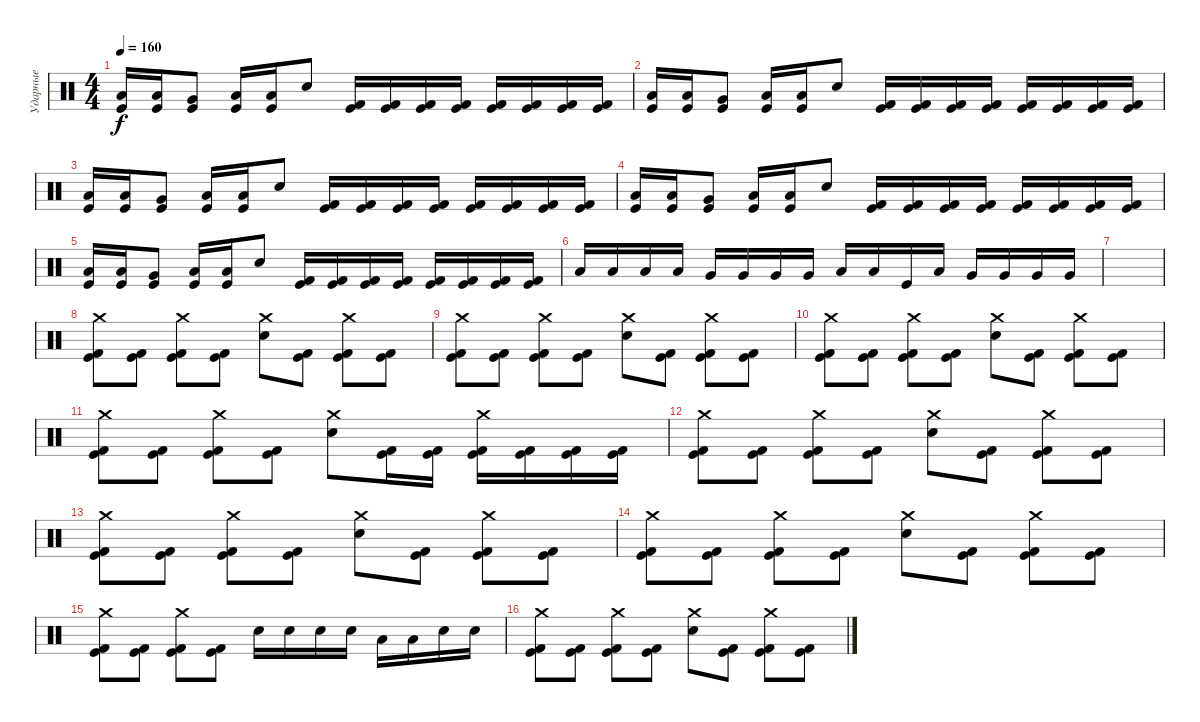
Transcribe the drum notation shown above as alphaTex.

\track ("Ударные" "Ударные") {instrument percussion}
\staff {score}
\articulation defaults
\ts (4 4)
\tempo 160
\clef neutral
\ks c
("Low Tom (hit)" "Kick (hit)").16{dy f} ("Low Tom (hit)" "Kick (hit)").16 ("Very Low Tom (hit)" "Kick (hit)").8 ("Low Tom (hit)" "Kick (hit)").16 ("Low Tom (hit)" "Kick (hit)").16 "Snare (hit) 2".8 ("Kick (hit)" "Kick (hit) 2").16 ("Kick (hit)" "Kick (hit) 2").16 ("Kick (hit)" "Kick (hit) 2").16 ("Kick (hit)" "Kick (hit) 2").16 ("Kick (hit)" "Kick (hit) 2").16 ("Kick (hit)" "Kick (hit) 2").16 ("Kick (hit)" "Kick (hit) 2").16 ("Kick (hit)" "Kick (hit) 2").16 |
("Low Tom (hit)" "Kick (hit)").16 ("Low Tom (hit)" "Kick (hit)").16 ("Very Low Tom (hit)" "Kick (hit)").8 ("Low Tom (hit)" "Kick (hit)").16 ("Low Tom (hit)" "Kick (hit)").16 "Snare (hit) 2".8 ("Kick (hit)" "Kick (hit) 2").16 ("Kick (hit)" "Kick (hit) 2").16 ("Kick (hit)" "Kick (hit) 2").16 ("Kick (hit)" "Kick (hit) 2").16 ("Kick (hit)" "Kick (hit) 2").16 ("Kick (hit)" "Kick (hit) 2").16 ("Kick (hit)" "Kick (hit) 2").16 ("Kick (hit)" "Kick (hit) 2").16 |
("Low Tom (hit)" "Kick (hit)").16 ("Low Tom (hit)" "Kick (hit)").16 ("Very Low Tom (hit)" "Kick (hit)").8 ("Low Tom (hit)" "Kick (hit)").16 ("Low Tom (hit)" "Kick (hit)").16 "Snare (hit) 2".8 ("Kick (hit)" "Kick (hit) 2").16 ("Kick (hit)" "Kick (hit) 2").16 ("Kick (hit)" "Kick (hit) 2").16 ("Kick (hit)" "Kick (hit) 2").16 ("Kick (hit)" "Kick (hit) 2").16 ("Kick (hit)" "Kick (hit) 2").16 ("Kick (hit)" "Kick (hit) 2").16 ("Kick (hit)" "Kick (hit) 2").16 |
("Low Tom (hit)" "Kick (hit)").16 ("Low Tom (hit)" "Kick (hit)").16 ("Very Low Tom (hit)" "Kick (hit)").8 ("Low Tom (hit)" "Kick (hit)").16 ("Low Tom (hit)" "Kick (hit)").16 "Snare (hit) 2".8 ("Kick (hit)" "Kick (hit) 2").16 ("Kick (hit)" "Kick (hit) 2").16 ("Kick (hit)" "Kick (hit) 2").16 ("Kick (hit)" "Kick (hit) 2").16 ("Kick (hit)" "Kick (hit) 2").16 ("Kick (hit)" "Kick (hit) 2").16 ("Kick (hit)" "Kick (hit) 2").16 ("Kick (hit)" "Kick (hit) 2").16 |
("Low Tom (hit)" "Kick (hit)").16 ("Low Tom (hit)" "Kick (hit)").16 ("Very Low Tom (hit)" "Kick (hit)").8 ("Low Tom (hit)" "Kick (hit)").16 ("Low Tom (hit)" "Kick (hit)").16 "Snare (hit) 2".8 ("Kick (hit)" "Kick (hit) 2").16 ("Kick (hit)" "Kick (hit) 2").16 ("Kick (hit)" "Kick (hit) 2").16 ("Kick (hit)" "Kick (hit) 2").16 ("Kick (hit)" "Kick (hit) 2").16 ("Kick (hit)" "Kick (hit) 2").16 ("Kick (hit)" "Kick (hit) 2").16 ("Kick (hit)" "Kick (hit) 2").16 |
"Low Tom (hit)".16 "Low Tom (hit)".16 "Low Tom (hit)".16 "Low Tom (hit)".16 "Very Low Tom (hit)".16 "Very Low Tom (hit)".16 "Very Low Tom (hit)".16 "Very Low Tom (hit)".16 "Low Tom (hit)".16 "Low Tom (hit)".16 "Kick (hit)".16 "Low Tom (hit)".16 "Very Low Tom (hit)".16 "Very Low Tom (hit)".16 "Very Low Tom (hit)".16 "Very Low Tom (hit)".16 |
|
("Crash medium (hit)" "Kick (hit)" "Kick (hit) 2").8 ("Kick (hit)" "Kick (hit) 2").8 ("Crash medium (hit)" "Kick (hit)" "Kick (hit) 2").8 ("Kick (hit)" "Kick (hit) 2").8 ("Crash medium (hit)" "Snare (hit) 2").8 ("Kick (hit)" "Kick (hit) 2").8 ("Crash medium (hit)" "Kick (hit)" "Kick (hit) 2").8 ("Kick (hit)" "Kick (hit) 2").8 |
("Crash medium (hit)" "Kick (hit)" "Kick (hit) 2").8 ("Kick (hit)" "Kick (hit) 2").8 ("Crash medium (hit)" "Kick (hit)" "Kick (hit) 2").8 ("Kick (hit)" "Kick (hit) 2").8 ("Crash medium (hit)" "Snare (hit) 2").8 ("Kick (hit)" "Kick (hit) 2").8 ("Crash medium (hit)" "Kick (hit)" "Kick (hit) 2").8 ("Kick (hit)" "Kick (hit) 2").8 |
("Crash medium (hit)" "Kick (hit)" "Kick (hit) 2").8 ("Kick (hit)" "Kick (hit) 2").8 ("Crash medium (hit)" "Kick (hit)" "Kick (hit) 2").8 ("Kick (hit)" "Kick (hit) 2").8 ("Crash medium (hit)" "Snare (hit) 2").8 ("Kick (hit)" "Kick (hit) 2").8 ("Crash medium (hit)" "Kick (hit)" "Kick (hit) 2").8 ("Kick (hit)" "Kick (hit) 2").8 |
("Crash medium (hit)" "Kick (hit)" "Kick (hit) 2").8 ("Kick (hit)" "Kick (hit) 2").8 ("Crash medium (hit)" "Kick (hit)" "Kick (hit) 2").8 ("Kick (hit)" "Kick (hit) 2").8 ("Crash medium (hit)" "Snare (hit) 2").8 ("Kick (hit)" "Kick (hit) 2").16 ("Kick (hit)" "Kick (hit) 2").16 ("Crash medium (hit)" "Kick (hit)" "Kick (hit) 2").16 ("Kick (hit)" "Kick (hit) 2").16 ("Kick (hit)" "Kick (hit) 2").16 ("Kick (hit)" "Kick (hit) 2").16 |
("Crash medium (hit)" "Kick (hit)" "Kick (hit) 2").8 ("Kick (hit)" "Kick (hit) 2").8 ("Crash medium (hit)" "Kick (hit)" "Kick (hit) 2").8 ("Kick (hit)" "Kick (hit) 2").8 ("Crash medium (hit)" "Snare (hit) 2").8 ("Kick (hit)" "Kick (hit) 2").8 ("Crash medium (hit)" "Kick (hit)" "Kick (hit) 2").8 ("Kick (hit)" "Kick (hit) 2").8 |
("Crash medium (hit)" "Kick (hit)" "Kick (hit) 2").8 ("Kick (hit)" "Kick (hit) 2").8 ("Crash medium (hit)" "Kick (hit)" "Kick (hit) 2").8 ("Kick (hit)" "Kick (hit) 2").8 ("Crash medium (hit)" "Snare (hit) 2").8 ("Kick (hit)" "Kick (hit) 2").8 ("Crash medium (hit)" "Kick (hit)" "Kick (hit) 2").8 ("Kick (hit)" "Kick (hit) 2").8 |
("Crash medium (hit)" "Kick (hit)" "Kick (hit) 2").8 ("Kick (hit)" "Kick (hit) 2").8 ("Crash medium (hit)" "Kick (hit)" "Kick (hit) 2").8 ("Kick (hit)" "Kick (hit) 2").8 ("Crash medium (hit)" "Snare (hit) 2").8 ("Kick (hit)" "Kick (hit) 2").8 ("Crash medium (hit)" "Kick (hit)" "Kick (hit) 2").8 ("Kick (hit)" "Kick (hit) 2").8 |
("Crash medium (hit)" "Kick (hit)" "Kick (hit) 2").8 ("Kick (hit)" "Kick (hit) 2").8 ("Crash medium (hit)" "Kick (hit)" "Kick (hit) 2").8 ("Kick (hit)" "Kick (hit) 2").8 "Snare (hit) 2".16 "Snare (hit) 2".16 "Snare (hit) 2".16 "Snare (hit) 2".16 "Low Tom (hit)".16 "Low Tom (hit)".16 "Snare (hit) 2".16 "Snare (hit) 2".16 |
("Crash medium (hit)" "Kick (hit)" "Kick (hit) 2").8 ("Kick (hit)" "Kick (hit) 2").8 ("Crash medium (hit)" "Kick (hit)" "Kick (hit) 2").8 ("Kick (hit)" "Kick (hit) 2").8 ("Crash medium (hit)" "Snare (hit) 2").8 ("Kick (hit)" "Kick (hit) 2").8 ("Crash medium (hit)" "Kick (hit)" "Kick (hit) 2").8 ("Kick (hit)" "Kick (hit) 2").8
